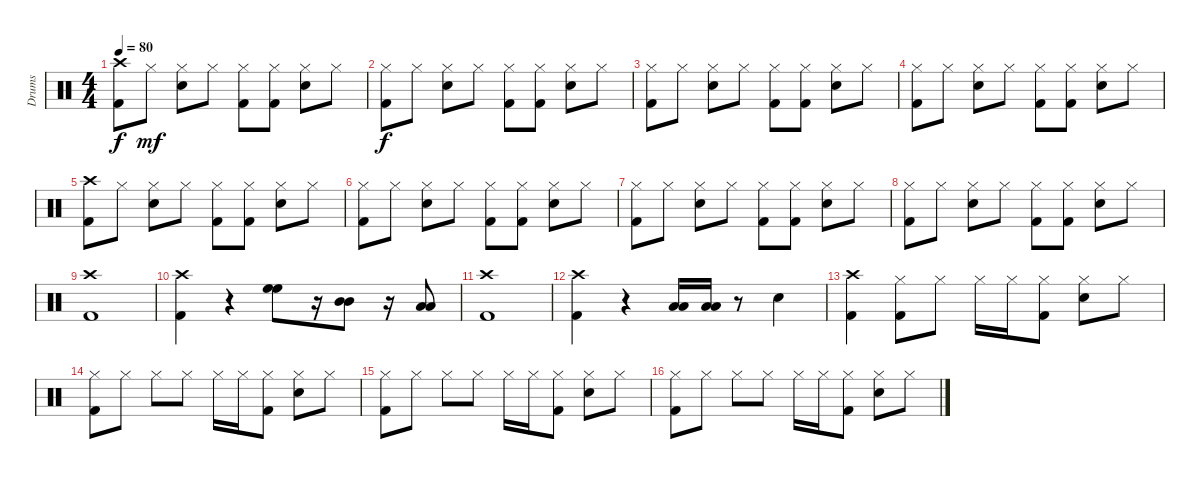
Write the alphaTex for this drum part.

\track ("Drums" "Drums") {instrument percussion}
\staff {score}
\articulation defaults
\ts (4 4)
\tempo 80
\clef neutral
\ks c
("Crash high (hit)" "Kick (hit) 2").8{dy f} "Hi-Hat (closed)".8{dy mf} ("Hi-Hat (closed)" "Snare (hit) 2").8 "Hi-Hat (closed)".8 ("Hi-Hat (closed)" "Kick (hit) 2").8 ("Hi-Hat (closed)" "Kick (hit) 2").8 ("Hi-Hat (closed)" "Snare (hit) 2").8 "Hi-Hat (closed)".8 |
("Hi-Hat (closed)" "Kick (hit) 2").8{dy f} "Hi-Hat (closed)".8 ("Hi-Hat (closed)" "Snare (hit) 2").8 "Hi-Hat (closed)".8 ("Hi-Hat (closed)" "Kick (hit) 2").8 ("Hi-Hat (closed)" "Kick (hit) 2").8 ("Hi-Hat (closed)" "Snare (hit) 2").8 "Hi-Hat (closed)".8 |
("Hi-Hat (closed)" "Kick (hit) 2").8 "Hi-Hat (closed)".8 ("Hi-Hat (closed)" "Snare (hit) 2").8 "Hi-Hat (closed)".8 ("Hi-Hat (closed)" "Kick (hit) 2").8 ("Hi-Hat (closed)" "Kick (hit) 2").8 ("Hi-Hat (closed)" "Snare (hit) 2").8 "Hi-Hat (closed)".8 |
("Hi-Hat (closed)" "Kick (hit) 2").8 "Hi-Hat (closed)".8 ("Hi-Hat (closed)" "Snare (hit) 2").8 "Hi-Hat (closed)".8 ("Hi-Hat (closed)" "Kick (hit) 2").8 ("Hi-Hat (closed)" "Kick (hit) 2").8 ("Hi-Hat (closed)" "Snare (hit) 2").8 "Hi-Hat (closed)".8 |
("Crash high (hit)" "Kick (hit) 2").8 "Hi-Hat (closed)".8 ("Hi-Hat (closed)" "Snare (hit) 2").8 "Hi-Hat (closed)".8 ("Hi-Hat (closed)" "Kick (hit) 2").8 ("Hi-Hat (closed)" "Kick (hit) 2").8 ("Hi-Hat (closed)" "Snare (hit) 2").8 "Hi-Hat (closed)".8 |
("Hi-Hat (closed)" "Kick (hit) 2").8 "Hi-Hat (closed)".8 ("Hi-Hat (closed)" "Snare (hit) 2").8 "Hi-Hat (closed)".8 ("Hi-Hat (closed)" "Kick (hit) 2").8 ("Hi-Hat (closed)" "Kick (hit) 2").8 ("Hi-Hat (closed)" "Snare (hit) 2").8 "Hi-Hat (closed)".8 |
("Hi-Hat (closed)" "Kick (hit) 2").8 "Hi-Hat (closed)".8 ("Hi-Hat (closed)" "Snare (hit) 2").8 "Hi-Hat (closed)".8 ("Hi-Hat (closed)" "Kick (hit) 2").8 ("Hi-Hat (closed)" "Kick (hit) 2").8 ("Hi-Hat (closed)" "Snare (hit) 2").8 "Hi-Hat (closed)".8 |
("Hi-Hat (closed)" "Kick (hit) 2").8 "Hi-Hat (closed)".8 ("Hi-Hat (closed)" "Snare (hit) 2").8 "Hi-Hat (closed)".8 ("Hi-Hat (closed)" "Kick (hit) 2").8 ("Hi-Hat (closed)" "Kick (hit) 2").8 ("Hi-Hat (closed)" "Snare (hit) 2").8 "Hi-Hat (closed)".8 |
("Crash high (hit)" "Kick (hit) 2").1 |
("Crash high (hit)" "Kick (hit) 2").4 r.4 ("High Floor Tom (hit)" "High Floor Tom (hit)").8 r.16 ("Mid Tom (hit)" "Mid Tom (hit)").8 r.16 ("Low Tom (hit)" "Low Tom (hit)").8 |
("Crash high (hit)" "Kick (hit) 2").1 |
("Crash high (hit)" "Kick (hit) 2").4 r.4 ("Low Floor Tom (hit)" "Low Floor Tom (hit)").16 ("Low Floor Tom (hit)" "Low Floor Tom (hit)").16 r.8 "Snare (hit) 2".4 |
("Crash high (hit)" "Kick (hit) 2").4 ("Hi-Hat (closed)" "Kick (hit) 2").8 "Hi-Hat (closed)".8 "Hi-Hat (closed)".16 "Hi-Hat (closed)".16 ("Hi-Hat (closed)" "Kick (hit) 2").8 ("Hi-Hat (closed)" "Snare (hit) 2").8 "Hi-Hat (closed)".8 |
("Hi-Hat (closed)" "Kick (hit) 2").8 "Hi-Hat (closed)".8 "Hi-Hat (closed)".8 "Hi-Hat (closed)".8 "Hi-Hat (closed)".16 "Hi-Hat (closed)".16 ("Hi-Hat (closed)" "Kick (hit) 2").8 ("Hi-Hat (closed)" "Snare (hit) 2").8 "Hi-Hat (closed)".8 |
("Hi-Hat (closed)" "Kick (hit) 2").8 "Hi-Hat (closed)".8 "Hi-Hat (closed)".8 "Hi-Hat (closed)".8 "Hi-Hat (closed)".16 "Hi-Hat (closed)".16 ("Hi-Hat (closed)" "Kick (hit) 2").8 ("Hi-Hat (closed)" "Snare (hit) 2").8 "Hi-Hat (closed)".8 |
("Hi-Hat (closed)" "Kick (hit) 2").8 "Hi-Hat (closed)".8 "Hi-Hat (closed)".8 "Hi-Hat (closed)".8 "Hi-Hat (closed)".16 "Hi-Hat (closed)".16 ("Hi-Hat (closed)" "Kick (hit) 2").8 ("Hi-Hat (closed)" "Snare (hit) 2").8 "Hi-Hat (closed)".8
